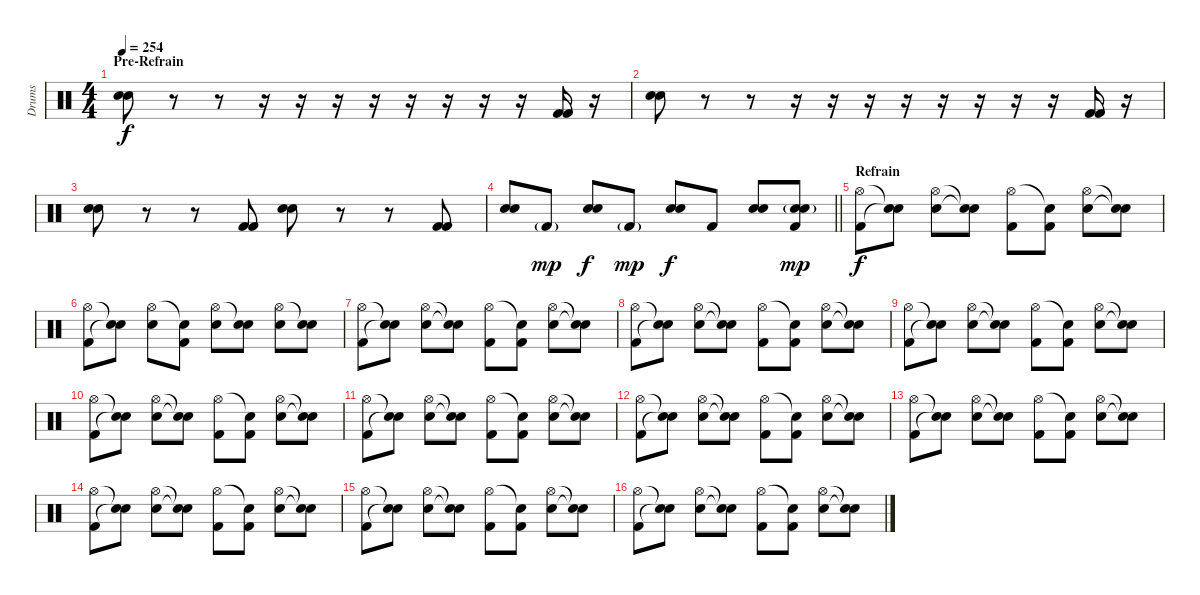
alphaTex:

\track ("Drums" "Drums") {instrument percussion}
\staff {score}
\articulation defaults
\ts (4 4)
\section ("" "Pre-Refrain")
\tempo 254
\clef neutral
\ks c
("Snare (hit) 2" "Electric Snare (hit)").8{dy f} r.8 r.8 r.16 r.16 r.16 r.16 r.16 r.16 r.16 r.16 ("Kick (hit) 2" "Kick (hit) 2").16 r.16 |
("Snare (hit) 2" "Electric Snare (hit)").8 r.8 r.8 r.16 r.16 r.16 r.16 r.16 r.16 r.16 r.16 ("Kick (hit) 2" "Kick (hit) 2").16 r.16 |
("Snare (hit) 2" "Electric Snare (hit)").8 r.8 r.8 ("Kick (hit) 2" "Kick (hit) 2").8 ("Snare (hit) 2" "Electric Snare (hit)").8 r.8 r.8 ("Kick (hit) 2" "Kick (hit) 2").8 |
\barLineRight lightlight
("Snare (hit) 2" "Electric Snare (hit)").8 "Kick (hit) 2"{g}.8{dy mp} ("Snare (hit) 2" "Electric Snare (hit)").8{dy f} "Kick (hit) 2"{g}.8{dy mp} ("Snare (hit) 2" "Electric Snare (hit)").8{dy f} "Kick (hit) 2".8 ("Snare (hit) 2" "Electric Snare (hit)").8 ("Snare (hit) 2"{g} "Electric Snare (hit)"{g} "Kick (hit) 2").8{dy mp} |
\section ("" "Refrain")
("Hi-Hat (open)" "Kick (hit) 2").8{dy f} ("Snare (hit)"{t} "Snare (hit)"{t}).8 ("Hi-Hat (open)" "Electric Snare (hit)").8 ("Snare (hit)"{t} "Snare (hit)"{t}).8 ("Hi-Hat (open)" "Kick (hit) 2").8 ("Snare (hit)"{t} "Kick (hit) 2").8 ("Hi-Hat (open)" "Electric Snare (hit)").8 ("Snare (hit)"{t} "Snare (hit)"{t}).8 |
("Hi-Hat (open)" "Kick (hit) 2").8 ("Snare (hit)"{t} "Snare (hit)"{t}).8 ("Hi-Hat (open)" "Electric Snare (hit)").8 ("Snare (hit)"{t} "Kick (hit) 2").8 ("Hi-Hat (open)" "Electric Snare (hit)").8 ("Snare (hit)"{t} "Electric Snare (hit)").8 ("Hi-Hat (open)" "Electric Snare (hit)").8 ("Snare (hit)"{t} "Electric Snare (hit)").8 |
("Hi-Hat (open)" "Kick (hit) 2").8 ("Snare (hit)"{t} "Snare (hit)"{t}).8 ("Hi-Hat (open)" "Electric Snare (hit)").8 ("Snare (hit)"{t} "Snare (hit)"{t}).8 ("Hi-Hat (open)" "Kick (hit) 2").8 ("Snare (hit)"{t} "Kick (hit) 2").8 ("Hi-Hat (open)" "Electric Snare (hit)").8 ("Snare (hit)"{t} "Snare (hit)"{t}).8 |
("Hi-Hat (open)" "Kick (hit) 2").8 ("Snare (hit)"{t} "Snare (hit)"{t}).8 ("Hi-Hat (open)" "Electric Snare (hit)").8 ("Snare (hit)"{t} "Snare (hit)"{t}).8 ("Hi-Hat (open)" "Kick (hit) 2").8 ("Snare (hit)"{t} "Kick (hit) 2").8 ("Hi-Hat (open)" "Electric Snare (hit)").8 ("Snare (hit)"{t} "Snare (hit)"{t}).8 |
("Hi-Hat (open)" "Kick (hit) 2").8 ("Snare (hit)"{t} "Snare (hit)"{t}).8 ("Hi-Hat (open)" "Electric Snare (hit)").8 ("Snare (hit)"{t} "Snare (hit)"{t}).8 ("Hi-Hat (open)" "Kick (hit) 2").8 ("Snare (hit)"{t} "Kick (hit) 2").8 ("Hi-Hat (open)" "Electric Snare (hit)").8 ("Snare (hit)"{t} "Snare (hit)"{t}).8 |
("Hi-Hat (open)" "Kick (hit) 2").8 ("Snare (hit)"{t} "Snare (hit)"{t}).8 ("Hi-Hat (open)" "Electric Snare (hit)").8 ("Snare (hit)"{t} "Snare (hit)"{t}).8 ("Hi-Hat (open)" "Kick (hit) 2").8 ("Snare (hit)"{t} "Kick (hit) 2").8 ("Hi-Hat (open)" "Electric Snare (hit)").8 ("Snare (hit)"{t} "Snare (hit)"{t}).8 |
("Hi-Hat (open)" "Kick (hit) 2").8 ("Snare (hit)"{t} "Snare (hit)"{t}).8 ("Hi-Hat (open)" "Electric Snare (hit)").8 ("Snare (hit)"{t} "Snare (hit)"{t}).8 ("Hi-Hat (open)" "Kick (hit) 2").8 ("Snare (hit)"{t} "Kick (hit) 2").8 ("Hi-Hat (open)" "Electric Snare (hit)").8 ("Snare (hit)"{t} "Snare (hit)"{t}).8 |
("Hi-Hat (open)" "Kick (hit) 2").8 ("Snare (hit)"{t} "Snare (hit)"{t}).8 ("Hi-Hat (open)" "Electric Snare (hit)").8 ("Snare (hit)"{t} "Snare (hit)"{t}).8 ("Hi-Hat (open)" "Kick (hit) 2").8 ("Snare (hit)"{t} "Kick (hit) 2").8 ("Hi-Hat (open)" "Electric Snare (hit)").8 ("Snare (hit)"{t} "Snare (hit)"{t}).8 |
("Hi-Hat (open)" "Kick (hit) 2").8 ("Snare (hit)"{t} "Snare (hit)"{t}).8 ("Hi-Hat (open)" "Electric Snare (hit)").8 ("Snare (hit)"{t} "Snare (hit)"{t}).8 ("Hi-Hat (open)" "Kick (hit) 2").8 ("Snare (hit)"{t} "Kick (hit) 2").8 ("Hi-Hat (open)" "Electric Snare (hit)").8 ("Snare (hit)"{t} "Snare (hit)"{t}).8 |
("Hi-Hat (open)" "Kick (hit) 2").8 ("Snare (hit)"{t} "Snare (hit)"{t}).8 ("Hi-Hat (open)" "Electric Snare (hit)").8 ("Snare (hit)"{t} "Snare (hit)"{t}).8 ("Hi-Hat (open)" "Kick (hit) 2").8 ("Snare (hit)"{t} "Kick (hit) 2").8 ("Hi-Hat (open)" "Electric Snare (hit)").8 ("Snare (hit)"{t} "Snare (hit)"{t}).8 |
("Hi-Hat (open)" "Kick (hit) 2").8 ("Snare (hit)"{t} "Snare (hit)"{t}).8 ("Hi-Hat (open)" "Electric Snare (hit)").8 ("Snare (hit)"{t} "Snare (hit)"{t}).8 ("Hi-Hat (open)" "Kick (hit) 2").8 ("Snare (hit)"{t} "Kick (hit) 2").8 ("Hi-Hat (open)" "Electric Snare (hit)").8 ("Snare (hit)"{t} "Snare (hit)"{t}).8 |
("Hi-Hat (open)" "Kick (hit) 2").8 ("Snare (hit)"{t} "Snare (hit)"{t}).8 ("Hi-Hat (open)" "Electric Snare (hit)").8 ("Snare (hit)"{t} "Snare (hit)"{t}).8 ("Hi-Hat (open)" "Kick (hit) 2").8 ("Snare (hit)"{t} "Kick (hit) 2").8 ("Hi-Hat (open)" "Electric Snare (hit)").8 ("Snare (hit)"{t} "Snare (hit)"{t}).8
